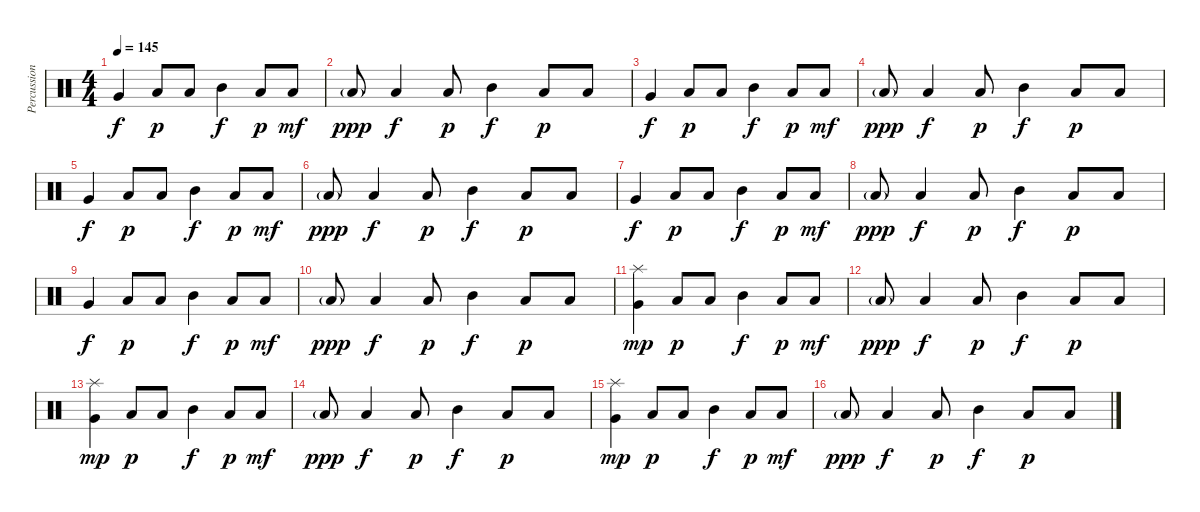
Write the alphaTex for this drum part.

\track ("Percussion" "Percussion") {instrument percussion}
\staff {score}
\articulation defaults
\ts (4 4)
\tempo 145
\clef neutral
\ks c "Very Low Tom (hit)".4{dy f} "Low Floor Tom (hit)".8{dy p} "Low Floor Tom (hit)".8 "Mid Tom (hit)".4{dy f} "Low Floor Tom (hit)".8{dy p} "Low Tom (hit)".8{dy mf}
|
"Low Floor Tom (hit)"{g}.8{dy ppp} "Low Tom (hit)".4{dy f} "Low Floor Tom (hit)".8{dy p} "Mid Tom (hit)".4{dy f} "Low Floor Tom (hit)".8{dy p} "Low Floor Tom (hit)".8 |
"Very Low Tom (hit)".4{dy f} "Low Floor Tom (hit)".8{dy p} "Low Floor Tom (hit)".8 "Mid Tom (hit)".4{dy f} "Low Floor Tom (hit)".8{dy p} "Low Tom (hit)".8{dy mf} |
"Low Floor Tom (hit)"{g}.8{dy ppp} "Low Tom (hit)".4{dy f} "Low Floor Tom (hit)".8{dy p} "Mid Tom (hit)".4{dy f} "Low Floor Tom (hit)".8{dy p} "Low Floor Tom (hit)".8 |
"Very Low Tom (hit)".4{dy f} "Low Floor Tom (hit)".8{dy p} "Low Floor Tom (hit)".8 "Mid Tom (hit)".4{dy f} "Low Floor Tom (hit)".8{dy p} "Low Tom (hit)".8{dy mf} |
"Low Floor Tom (hit)"{g}.8{dy ppp} "Low Tom (hit)".4{dy f} "Low Floor Tom (hit)".8{dy p} "Mid Tom (hit)".4{dy f} "Low Floor Tom (hit)".8{dy p} "Low Floor Tom (hit)".8 |
"Very Low Tom (hit)".4{dy f} "Low Floor Tom (hit)".8{dy p} "Low Floor Tom (hit)".8 "Mid Tom (hit)".4{dy f} "Low Floor Tom (hit)".8{dy p} "Low Tom (hit)".8{dy mf} |
"Low Floor Tom (hit)"{g}.8{dy ppp} "Low Tom (hit)".4{dy f} "Low Floor Tom (hit)".8{dy p} "Mid Tom (hit)".4{dy f} "Low Floor Tom (hit)".8{dy p} "Low Floor Tom (hit)".8 |
"Very Low Tom (hit)".4{dy f} "Low Floor Tom (hit)".8{dy p} "Low Floor Tom (hit)".8 "Mid Tom (hit)".4{dy f} "Low Floor Tom (hit)".8{dy p} "Low Tom (hit)".8{dy mf} |
"Low Floor Tom (hit)"{g}.8{dy ppp} "Low Tom (hit)".4{dy f} "Low Floor Tom (hit)".8{dy p} "Mid Tom (hit)".4{dy f} "Low Floor Tom (hit)".8{dy p} "Low Floor Tom (hit)".8 |
("Splash (hit)" "Very Low Tom (hit)").4{dy mp} "Low Floor Tom (hit)".8{dy p} "Low Floor Tom (hit)".8 "Mid Tom (hit)".4{dy f} "Low Floor Tom (hit)".8{dy p} "Low Tom (hit)".8{dy mf} |
"Low Floor Tom (hit)"{g}.8{dy ppp} "Low Tom (hit)".4{dy f} "Low Floor Tom (hit)".8{dy p} "Mid Tom (hit)".4{dy f} "Low Floor Tom (hit)".8{dy p} "Low Floor Tom (hit)".8 |
("Splash (hit)" "Very Low Tom (hit)").4{dy mp} "Low Floor Tom (hit)".8{dy p} "Low Floor Tom (hit)".8 "Mid Tom (hit)".4{dy f} "Low Floor Tom (hit)".8{dy p} "Low Tom (hit)".8{dy mf} |
"Low Floor Tom (hit)"{g}.8{dy ppp} "Low Tom (hit)".4{dy f} "Low Floor Tom (hit)".8{dy p} "Mid Tom (hit)".4{dy f} "Low Floor Tom (hit)".8{dy p} "Low Floor Tom (hit)".8 |
("Splash (hit)" "Very Low Tom (hit)").4{dy mp} "Low Floor Tom (hit)".8{dy p} "Low Floor Tom (hit)".8 "Mid Tom (hit)".4{dy f} "Low Floor Tom (hit)".8{dy p} "Low Tom (hit)".8{dy mf} |
"Low Floor Tom (hit)"{g}.8{dy ppp} "Low Tom (hit)".4{dy f} "Low Floor Tom (hit)".8{dy p} "Mid Tom (hit)".4{dy f} "Low Floor Tom (hit)".8{dy p} "Low Floor Tom (hit)".8
